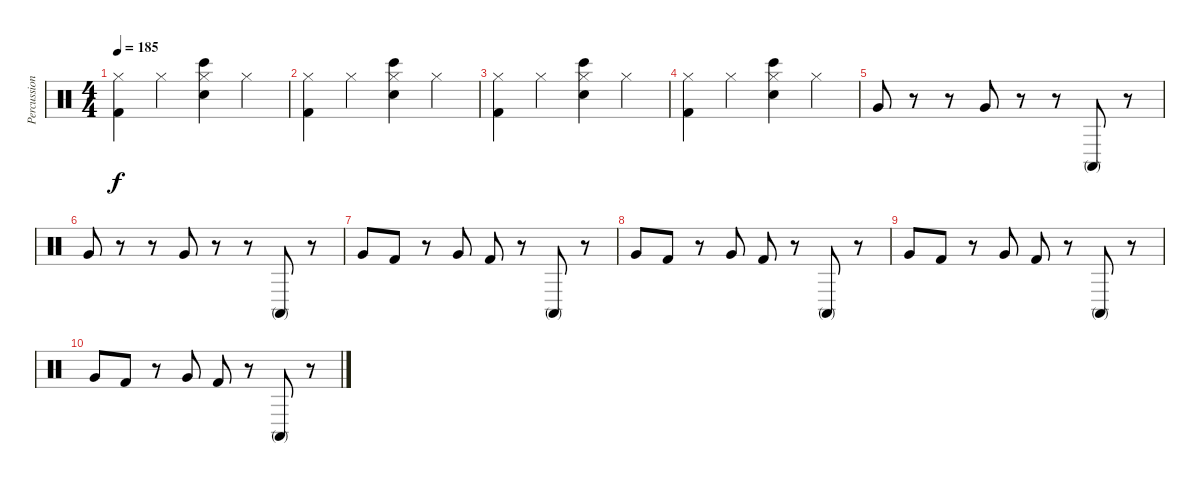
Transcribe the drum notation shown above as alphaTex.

\track ("Percussion" "Percussion") {instrument percussion}
\staff {score}
\articulation defaults
\ts (4 4)
\tempo 185
\clef neutral
\ks c
("Hi-Hat (closed)" "Kick (hit) 2").4{dy f} "Hi-Hat (closed)".4 ("Bongo High (hit)" "Electric Snare (hit)" "Hi-Hat (closed)").4 "Hi-Hat (closed)".4 |
("Hi-Hat (closed)" "Kick (hit) 2").4 "Hi-Hat (closed)".4 ("Bongo High (hit)" "Electric Snare (hit)" "Hi-Hat (closed)").4 "Hi-Hat (closed)".4 |
("Hi-Hat (closed)" "Kick (hit) 2").4 "Hi-Hat (closed)".4 ("Bongo High (hit)" "Electric Snare (hit)" "Hi-Hat (closed)").4 "Hi-Hat (closed)".4 |
("Hi-Hat (closed)" "Kick (hit) 2").4 "Hi-Hat (closed)".4 ("Bongo High (hit)" "Electric Snare (hit)" "Hi-Hat (closed)").4 "Hi-Hat (closed)".4 |
"Very Low Tom (hit)".8 r.8 r.8 "Very Low Tom (hit)".8 r.8 r.8 "Conga high (mute)".8 r.8 |
"Very Low Tom (hit)".8 r.8 r.8 "Very Low Tom (hit)".8 r.8 r.8 "Conga high (mute)".8 r.8 |
"Very Low Tom (hit)".8 "Kick (hit) 2".8 r.8 "Very Low Tom (hit)".8 "Kick (hit) 2".8 r.8 "Conga high (mute)".8 r.8 |
"Very Low Tom (hit)".8 "Kick (hit) 2".8 r.8 "Very Low Tom (hit)".8 "Kick (hit) 2".8 r.8 "Conga high (mute)".8 r.8 |
"Very Low Tom (hit)".8 "Kick (hit) 2".8 r.8 "Very Low Tom (hit)".8 "Kick (hit) 2".8 r.8 "Conga high (mute)".8 r.8 |
"Very Low Tom (hit)".8 "Kick (hit) 2".8 r.8 "Very Low Tom (hit)".8 "Kick (hit) 2".8 r.8 "Conga high (mute)".8 r.8
